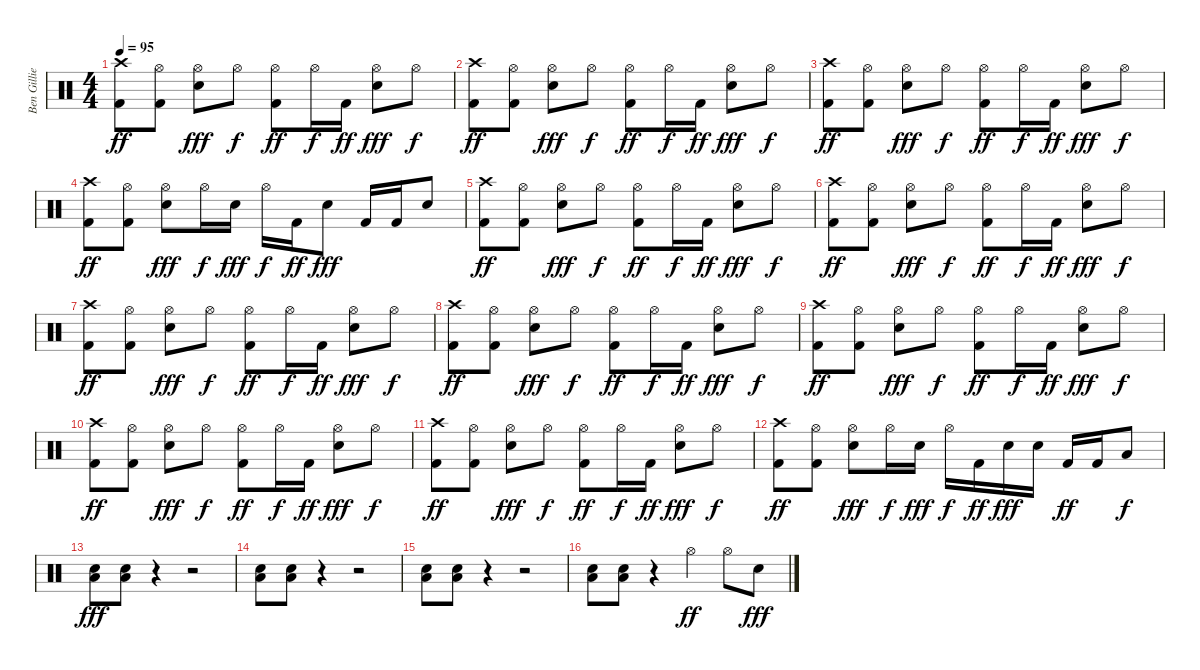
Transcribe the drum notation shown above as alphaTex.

\track ("Ben Gillies" "Ben Gillie") {instrument percussion}
\staff {score}
\articulation defaults
\ts (4 4)
\tempo 95
\clef neutral
\ks c
("Crash high (hit)" "Kick (hit) 2").8{dy ff} ("Hi-Hat (open)" "Kick (hit) 2").8 ("Hi-Hat (open)" "Electric Snare (hit)").8{dy fff} "Hi-Hat (open)".8{dy f} ("Hi-Hat (open)" "Kick (hit) 2").8{dy ff} "Hi-Hat (open)".16{dy f} "Kick (hit) 2".16{dy ff} ("Hi-Hat (open)" "Electric Snare (hit)").8{dy fff} "Hi-Hat (open)".8{dy f} |
("Crash high (hit)" "Kick (hit) 2").8{dy ff} ("Hi-Hat (open)" "Kick (hit) 2").8 ("Hi-Hat (open)" "Electric Snare (hit)").8{dy fff} "Hi-Hat (open)".8{dy f} ("Hi-Hat (open)" "Kick (hit) 2").8{dy ff} "Hi-Hat (open)".16{dy f} "Kick (hit) 2".16{dy ff} ("Hi-Hat (open)" "Electric Snare (hit)").8{dy fff} "Hi-Hat (open)".8{dy f} |
("Crash high (hit)" "Kick (hit) 2").8{dy ff} ("Hi-Hat (open)" "Kick (hit) 2").8 ("Hi-Hat (open)" "Electric Snare (hit)").8{dy fff} "Hi-Hat (open)".8{dy f} ("Hi-Hat (open)" "Kick (hit) 2").8{dy ff} "Hi-Hat (open)".16{dy f} "Kick (hit) 2".16{dy ff} ("Hi-Hat (open)" "Electric Snare (hit)").8{dy fff} "Hi-Hat (open)".8{dy f} |
("Crash high (hit)" "Kick (hit) 2").8{dy ff} ("Hi-Hat (open)" "Kick (hit) 2").8 ("Hi-Hat (open)" "Electric Snare (hit)").8{dy fff} "Hi-Hat (open)".16{dy f} "Electric Snare (hit)".16{dy fff} "Hi-Hat (open)".16{dy f} "Kick (hit) 2".16{dy ff} "Electric Snare (hit)".8{dy fff} "Kick (hit) 2".16 "Kick (hit) 2".16 "Electric Snare (hit)".8 |
("Crash high (hit)" "Kick (hit) 2").8{dy ff} ("Hi-Hat (open)" "Kick (hit) 2").8 ("Hi-Hat (open)" "Electric Snare (hit)").8{dy fff} "Hi-Hat (open)".8{dy f} ("Hi-Hat (open)" "Kick (hit) 2").8{dy ff} "Hi-Hat (open)".16{dy f} "Kick (hit) 2".16{dy ff} ("Hi-Hat (open)" "Electric Snare (hit)").8{dy fff} "Hi-Hat (open)".8{dy f} |
("Crash high (hit)" "Kick (hit) 2").8{dy ff} ("Hi-Hat (open)" "Kick (hit) 2").8 ("Hi-Hat (open)" "Electric Snare (hit)").8{dy fff} "Hi-Hat (open)".8{dy f} ("Hi-Hat (open)" "Kick (hit) 2").8{dy ff} "Hi-Hat (open)".16{dy f} "Kick (hit) 2".16{dy ff} ("Hi-Hat (open)" "Electric Snare (hit)").8{dy fff} "Hi-Hat (open)".8{dy f} |
("Crash high (hit)" "Kick (hit) 2").8{dy ff} ("Hi-Hat (open)" "Kick (hit) 2").8 ("Hi-Hat (open)" "Electric Snare (hit)").8{dy fff} "Hi-Hat (open)".8{dy f} ("Hi-Hat (open)" "Kick (hit) 2").8{dy ff} "Hi-Hat (open)".16{dy f} "Kick (hit) 2".16{dy ff} ("Hi-Hat (open)" "Electric Snare (hit)").8{dy fff} "Hi-Hat (open)".8{dy f} |
("Crash high (hit)" "Kick (hit) 2").8{dy ff} ("Hi-Hat (open)" "Kick (hit) 2").8 ("Hi-Hat (open)" "Electric Snare (hit)").8{dy fff} "Hi-Hat (open)".8{dy f} ("Hi-Hat (open)" "Kick (hit) 2").8{dy ff} "Hi-Hat (open)".16{dy f} "Kick (hit) 2".16{dy ff} ("Hi-Hat (open)" "Electric Snare (hit)").8{dy fff} "Hi-Hat (open)".8{dy f} |
("Crash high (hit)" "Kick (hit) 2").8{dy ff} ("Hi-Hat (open)" "Kick (hit) 2").8 ("Hi-Hat (open)" "Electric Snare (hit)").8{dy fff} "Hi-Hat (open)".8{dy f} ("Hi-Hat (open)" "Kick (hit) 2").8{dy ff} "Hi-Hat (open)".16{dy f} "Kick (hit) 2".16{dy ff} ("Hi-Hat (open)" "Electric Snare (hit)").8{dy fff} "Hi-Hat (open)".8{dy f} |
("Crash high (hit)" "Kick (hit) 2").8{dy ff} ("Hi-Hat (open)" "Kick (hit) 2").8 ("Hi-Hat (open)" "Electric Snare (hit)").8{dy fff} "Hi-Hat (open)".8{dy f} ("Hi-Hat (open)" "Kick (hit) 2").8{dy ff} "Hi-Hat (open)".16{dy f} "Kick (hit) 2".16{dy ff} ("Hi-Hat (open)" "Electric Snare (hit)").8{dy fff} "Hi-Hat (open)".8{dy f} |
("Crash high (hit)" "Kick (hit) 2").8{dy ff} ("Hi-Hat (open)" "Kick (hit) 2").8 ("Hi-Hat (open)" "Electric Snare (hit)").8{dy fff} "Hi-Hat (open)".8{dy f} ("Hi-Hat (open)" "Kick (hit) 2").8{dy ff} "Hi-Hat (open)".16{dy f} "Kick (hit) 2".16{dy ff} ("Hi-Hat (open)" "Electric Snare (hit)").8{dy fff} "Hi-Hat (open)".8{dy f} |
("Crash high (hit)" "Kick (hit) 2").8{dy ff} ("Hi-Hat (open)" "Kick (hit) 2").8 ("Hi-Hat (open)" "Electric Snare (hit)").8{dy fff} "Hi-Hat (open)".16{dy f} "Electric Snare (hit)".16{dy fff} "Hi-Hat (open)".16{dy f} "Kick (hit) 2".16{dy ff} "Electric Snare (hit)".16{dy fff} "Electric Snare (hit)".16 "Kick (hit) 2".16{dy ff} "Kick (hit) 2".16 "Low Floor Tom (hit)".8{dy f} |
("Low Floor Tom (hit)" "Electric Snare (hit)").8{dy fff} ("Low Floor Tom (hit)" "Electric Snare (hit)").8 r.4 r.2 |
("Low Floor Tom (hit)" "Electric Snare (hit)").8 ("Low Floor Tom (hit)" "Electric Snare (hit)").8 r.4 r.2 |
("Low Floor Tom (hit)" "Electric Snare (hit)").8 ("Low Floor Tom (hit)" "Electric Snare (hit)").8 r.4 r.2 |
("Low Floor Tom (hit)" "Electric Snare (hit)").8 ("Low Floor Tom (hit)" "Electric Snare (hit)").8 r.4 "Hi-Hat (open)".4{dy ff} "Hi-Hat (open)".8 "Electric Snare (hit)".8{dy fff}
